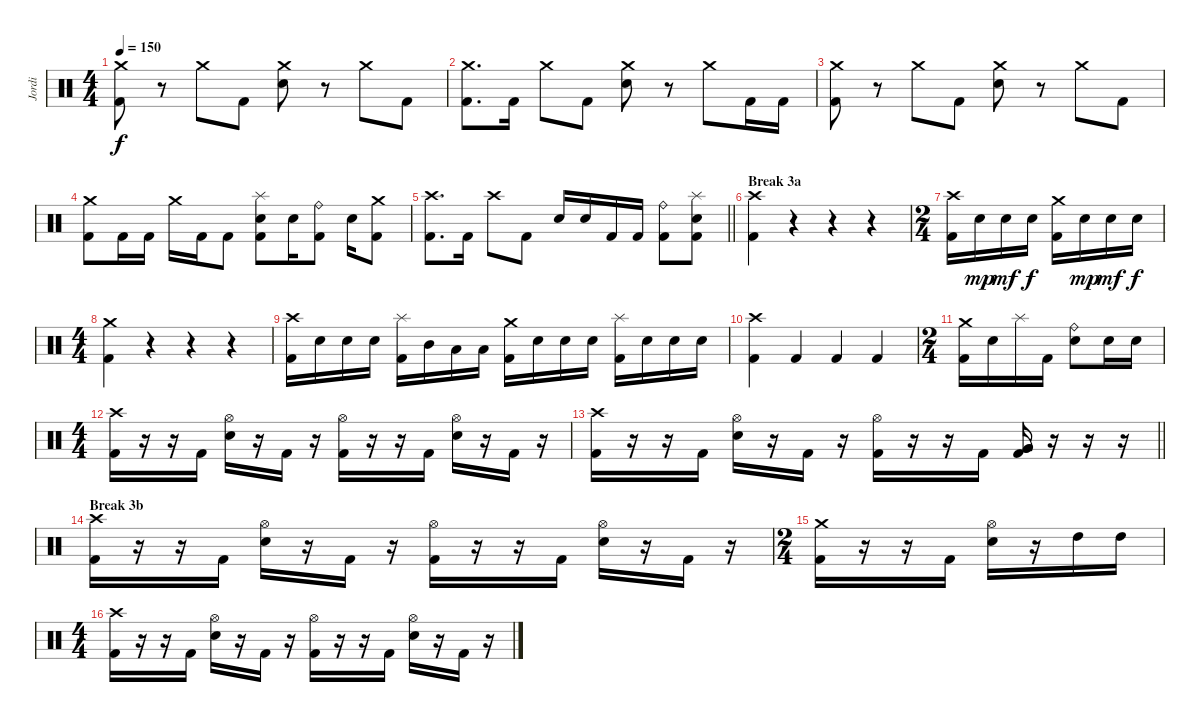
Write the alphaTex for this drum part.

\track ("Jordi" "Jordi") {instrument percussion}
\staff {score}
\articulation defaults
\ts (4 4)
\tempo 150
\clef neutral
\ks c
("Crash medium (hit)" "Kick (hit) 2").8{dy f} r.8 "Crash medium (hit)".8 "Kick (hit) 2".8 ("Crash medium (hit)" "Snare (hit) 2").8 r.8 "Crash medium (hit)".8 "Kick (hit) 2".8 |
("Crash medium (hit)" "Kick (hit) 2").8{d} "Kick (hit) 2".16 "Crash medium (hit)".8 "Kick (hit) 2".8 ("Crash medium (hit)" "Snare (hit) 2").8 r.8 "Crash medium (hit)".8 "Kick (hit) 2".16 "Kick (hit) 2".16 |
("Crash medium (hit)" "Kick (hit) 2").8 r.8 "Crash medium (hit)".8 "Kick (hit) 2".8 ("Crash medium (hit)" "Snare (hit) 2").8 r.8 "Crash medium (hit)".8 "Kick (hit) 2".8 |
("Crash medium (hit)" "Kick (hit) 2").8 "Kick (hit) 2".16 "Kick (hit) 2".16 "Crash medium (hit)".16 "Kick (hit) 2".16 "Kick (hit) 2".8 ("Splash (hit)" "Snare (hit) 2" "Kick (hit) 2").8 "Snare (hit) 2".16 ("Ride (bell)" "Kick (hit) 2").8 "Snare (hit) 2".16 ("Crash medium (hit)" "Kick (hit) 2").8 |
\barLineRight lightlight
("Crash high (hit)" "Kick (hit) 2").8{d} "Kick (hit) 2".16 "Crash high (hit)".8 "Kick (hit) 2".8 "Snare (hit) 2".16 "Snare (hit) 2".16 "Kick (hit) 2".16 "Kick (hit) 2".16 ("Ride (bell)" "Kick (hit) 2").8 ("Splash (hit)" "Snare (hit) 2" "Kick (hit) 2").8 |
\section ("" "Break 3a")
("Crash high (hit)" "Kick (hit) 2").4 r.4 r.4 r.4 |
\ts (2 4)
("Crash high (hit)" "Kick (hit) 2").16 "Snare (hit) 2".16{dy mp} "Snare (hit) 2".16{dy mf} "Snare (hit) 2".16{dy f} ("Crash medium (hit)" "Kick (hit) 2").16 "Snare (hit) 2".16{dy mp} "Snare (hit) 2".16{dy mf} "Snare (hit) 2".16{dy f} |
\ts (4 4)
("Crash medium (hit)" "Kick (hit) 2").4 r.4 r.4 r.4 |
("Crash high (hit)" "Kick (hit) 2").16 "Snare (hit) 2".16 "Snare (hit) 2".16 "Snare (hit) 2".16 ("Splash (hit)" "Kick (hit) 2").16 "Mid Tom (hit)".16 "Low Tom (hit)".16 "Low Tom (hit)".16 ("Crash medium (hit)" "Kick (hit) 2").16 "Snare (hit) 2".16 "Snare (hit) 2".16 "Snare (hit) 2".16 ("Splash (hit)" "Kick (hit) 2").16 "Snare (hit) 2".16 "Snare (hit) 2".16 "Snare (hit) 2".16 |
("Crash high (hit)" "Kick (hit) 2").4 "Kick (hit) 2".4 "Kick (hit) 2".4 "Kick (hit) 2".4 |
\ts (2 4)
("Crash medium (hit)" "Kick (hit) 2").16 "Snare (hit) 2".16 "Splash (hit)".16 "Kick (hit) 2".16 ("Ride (bell)" "Snare (hit) 2").8 "Snare (hit) 2".16 "Snare (hit) 2".16 |
\ts (4 4)
("Crash high (hit)" "Kick (hit) 2").16 r.16 r.16 "Kick (hit) 2".16 ("Hi-Hat (open)" "Snare (hit) 2").16 r.16 "Kick (hit) 2".16 r.16 ("Hi-Hat (open)" "Kick (hit) 2").16 r.16 r.16 "Kick (hit) 2".16 ("Hi-Hat (open)" "Snare (hit) 2").16 r.16 "Kick (hit) 2".16 r.16 |
\barLineRight lightlight
("Crash high (hit)" "Kick (hit) 2").16 r.16 r.16 "Kick (hit) 2".16 ("Hi-Hat (open)" "Snare (hit) 2").16 r.16 "Kick (hit) 2".16 r.16 ("Hi-Hat (open)" "Kick (hit) 2").16 r.16 r.16 "Kick (hit) 2".16 ("Very Low Tom (hit)" "Very Low Tom (hit)" "Kick (hit) 2").16 r.16 r.16 r.16 |
\section ("" "Break 3b")
("Crash high (hit)" "Kick (hit) 2").16 r.16 r.16 "Kick (hit) 2".16 ("Hi-Hat (open)" "Snare (hit) 2").16 r.16 "Kick (hit) 2".16 r.16 ("Hi-Hat (open)" "Kick (hit) 2").16 r.16 r.16 "Kick (hit) 2".16 ("Hi-Hat (open)" "Snare (hit) 2").16 r.16 "Kick (hit) 2".16 r.16 |
\ts (2 4)
("Crash medium (hit)" "Kick (hit) 2").16 r.16 r.16 "Kick (hit) 2".16 ("Hi-Hat (open)" "Snare (hit) 2").16 r.16 "High Tom (hit)".16 "High Tom (hit)".16 |
\ts (4 4)
("Crash high (hit)" "Kick (hit) 2").16 r.16 r.16 "Kick (hit) 2".16 ("Hi-Hat (open)" "Snare (hit) 2").16 r.16 "Kick (hit) 2".16 r.16 ("Hi-Hat (open)" "Kick (hit) 2").16 r.16 r.16 "Kick (hit) 2".16 ("Hi-Hat (open)" "Snare (hit) 2").16 r.16 "Kick (hit) 2".16 r.16
